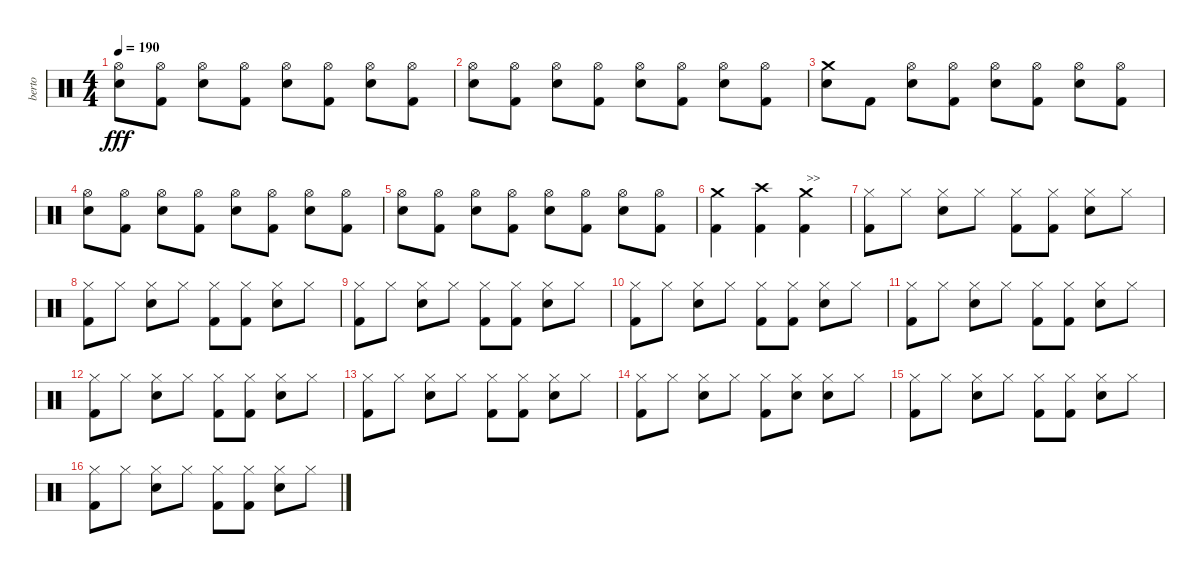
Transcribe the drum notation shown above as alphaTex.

\track ("berto" "berto") {instrument percussion}
\staff {score}
\articulation defaults
\ts (4 4)
\tempo 190
\clef neutral
\ks c
("Hi-Hat (open)" "Snare (hit) 2").8{dy fff} ("Hi-Hat (open)" "Kick (hit) 2").8 ("Hi-Hat (open)" "Snare (hit) 2").8 ("Hi-Hat (open)" "Kick (hit) 2").8 ("Hi-Hat (open)" "Snare (hit) 2").8 ("Hi-Hat (open)" "Kick (hit) 2").8 ("Hi-Hat (open)" "Snare (hit) 2").8 ("Hi-Hat (open)" "Kick (hit) 2").8 |
("Hi-Hat (open)" "Snare (hit) 2").8 ("Hi-Hat (open)" "Kick (hit) 2").8 ("Hi-Hat (open)" "Snare (hit) 2").8 ("Hi-Hat (open)" "Kick (hit) 2").8 ("Hi-Hat (open)" "Snare (hit) 2").8 ("Hi-Hat (open)" "Kick (hit) 2").8 ("Hi-Hat (open)" "Snare (hit) 2").8 ("Hi-Hat (open)" "Kick (hit) 2").8 |
("Crash medium (hit)" "Snare (hit) 2").8 "Kick (hit) 2".8 ("Hi-Hat (open)" "Snare (hit) 2").8 ("Hi-Hat (open)" "Kick (hit) 2").8 ("Hi-Hat (open)" "Snare (hit) 2").8 ("Hi-Hat (open)" "Kick (hit) 2").8 ("Hi-Hat (open)" "Snare (hit) 2").8 ("Hi-Hat (open)" "Kick (hit) 2").8 |
("Hi-Hat (open)" "Snare (hit) 2").8 ("Hi-Hat (open)" "Kick (hit) 2").8 ("Hi-Hat (open)" "Snare (hit) 2").8 ("Hi-Hat (open)" "Kick (hit) 2").8 ("Hi-Hat (open)" "Snare (hit) 2").8 ("Hi-Hat (open)" "Kick (hit) 2").8 ("Hi-Hat (open)" "Snare (hit) 2").8 ("Hi-Hat (open)" "Kick (hit) 2").8 |
("Hi-Hat (open)" "Snare (hit) 2").8 ("Hi-Hat (open)" "Kick (hit) 2").8 ("Hi-Hat (open)" "Snare (hit) 2").8 ("Hi-Hat (open)" "Kick (hit) 2").8 ("Hi-Hat (open)" "Snare (hit) 2").8 ("Hi-Hat (open)" "Kick (hit) 2").8 ("Hi-Hat (open)" "Snare (hit) 2").8 ("Hi-Hat (open)" "Kick (hit) 2").8 |
("Crash medium (hit)" "Kick (hit) 2").4 ("Crash high (hit)" "Kick (hit) 2").4 ("Crash medium (hit)" "Kick (hit) 2").4{txt ">>"} |
("Hi-Hat (closed)" "Kick (hit) 2").8 "Hi-Hat (closed)".8 ("Hi-Hat (closed)" "Snare (hit) 2").8 "Hi-Hat (closed)".8 ("Hi-Hat (closed)" "Kick (hit) 2").8 ("Hi-Hat (closed)" "Kick (hit) 2").8 ("Hi-Hat (closed)" "Snare (hit) 2").8 "Hi-Hat (closed)".8 |
("Hi-Hat (closed)" "Kick (hit) 2").8 "Hi-Hat (closed)".8 ("Hi-Hat (closed)" "Snare (hit) 2").8 "Hi-Hat (closed)".8 ("Hi-Hat (closed)" "Kick (hit) 2").8 ("Hi-Hat (closed)" "Kick (hit) 2").8 ("Hi-Hat (closed)" "Snare (hit) 2").8 "Hi-Hat (closed)".8 |
("Hi-Hat (closed)" "Kick (hit) 2").8 "Hi-Hat (closed)".8 ("Hi-Hat (closed)" "Snare (hit) 2").8 "Hi-Hat (closed)".8 ("Hi-Hat (closed)" "Kick (hit) 2").8 ("Hi-Hat (closed)" "Kick (hit) 2").8 ("Hi-Hat (closed)" "Snare (hit) 2").8 "Hi-Hat (closed)".8 |
("Hi-Hat (closed)" "Kick (hit) 2").8 "Hi-Hat (closed)".8 ("Hi-Hat (closed)" "Snare (hit) 2").8 "Hi-Hat (closed)".8 ("Hi-Hat (closed)" "Kick (hit) 2").8 ("Hi-Hat (closed)" "Kick (hit) 2").8 ("Hi-Hat (closed)" "Snare (hit) 2").8 "Hi-Hat (closed)".8 |
("Hi-Hat (closed)" "Kick (hit) 2").8 "Hi-Hat (closed)".8 ("Hi-Hat (closed)" "Snare (hit) 2").8 "Hi-Hat (closed)".8 ("Hi-Hat (closed)" "Kick (hit) 2").8 ("Hi-Hat (closed)" "Kick (hit) 2").8 ("Hi-Hat (closed)" "Snare (hit) 2").8 "Hi-Hat (closed)".8 |
("Hi-Hat (closed)" "Kick (hit) 2").8 "Hi-Hat (closed)".8 ("Hi-Hat (closed)" "Snare (hit) 2").8 "Hi-Hat (closed)".8 ("Hi-Hat (closed)" "Kick (hit) 2").8 ("Hi-Hat (closed)" "Kick (hit) 2").8 ("Hi-Hat (closed)" "Snare (hit) 2").8 "Hi-Hat (closed)".8 |
("Hi-Hat (closed)" "Kick (hit) 2").8 "Hi-Hat (closed)".8 ("Hi-Hat (closed)" "Snare (hit) 2").8 "Hi-Hat (closed)".8 ("Hi-Hat (closed)" "Kick (hit) 2").8 ("Hi-Hat (closed)" "Kick (hit) 2").8 ("Hi-Hat (closed)" "Snare (hit) 2").8 "Hi-Hat (closed)".8 |
("Hi-Hat (closed)" "Kick (hit) 2").8 "Hi-Hat (closed)".8 ("Hi-Hat (closed)" "Snare (hit) 2").8 "Hi-Hat (closed)".8 ("Hi-Hat (closed)" "Kick (hit) 2").8 ("Hi-Hat (closed)" "Snare (hit) 2").8 ("Hi-Hat (closed)" "Snare (hit) 2").8 "Hi-Hat (closed)".8 |
("Hi-Hat (closed)" "Kick (hit) 2").8 "Hi-Hat (closed)".8 ("Hi-Hat (closed)" "Snare (hit) 2").8 "Hi-Hat (closed)".8 ("Hi-Hat (closed)" "Kick (hit) 2").8 ("Hi-Hat (closed)" "Kick (hit) 2").8 ("Hi-Hat (closed)" "Snare (hit) 2").8 "Hi-Hat (closed)".8 |
("Hi-Hat (closed)" "Kick (hit) 2").8 "Hi-Hat (closed)".8 ("Hi-Hat (closed)" "Snare (hit) 2").8 "Hi-Hat (closed)".8 ("Hi-Hat (closed)" "Kick (hit) 2").8 ("Hi-Hat (closed)" "Kick (hit) 2").8 ("Hi-Hat (closed)" "Snare (hit) 2").8 "Hi-Hat (closed)".8
